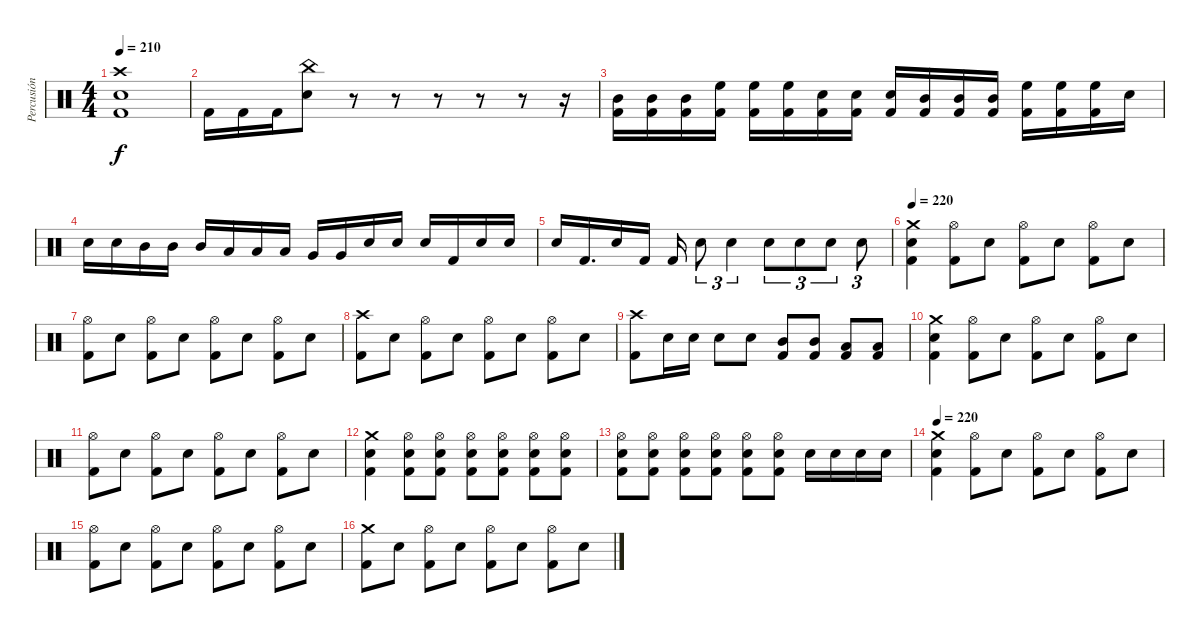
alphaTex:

\track ("Percusión" "Percusión") {instrument percussion}
\staff {score}
\articulation defaults
\ts (4 4)
\tempo 210
\clef neutral
\ks c
("Crash high (hit)" "Electric Snare (hit)" "Kick (hit) 2").1{dy f} |
"Kick (hit) 2".16 "Kick (hit) 2".16 "Kick (hit) 2".16 ("China (hit)" "Electric Snare (hit)").8 r.8 r.8 r.8 r.8 r.8 r.16 |
("Mid Tom (hit)" "Kick (hit) 2").16 ("Mid Tom (hit)" "Kick (hit) 2").16 ("Mid Tom (hit)" "Kick (hit) 2").16 ("High Floor Tom (hit)" "Kick (hit) 2").16 ("High Floor Tom (hit)" "Kick (hit) 2").16 ("High Floor Tom (hit)" "Kick (hit) 2").16 ("Electric Snare (hit)" "Kick (hit) 2").16 ("Electric Snare (hit)" "Kick (hit) 2").16 ("Electric Snare (hit)" "Kick (hit) 2").16 ("Mid Tom (hit)" "Kick (hit) 2").16 ("Mid Tom (hit)" "Kick (hit) 2").16 ("Mid Tom (hit)" "Kick (hit) 2").16 ("High Floor Tom (hit)" "Kick (hit) 2").16 ("High Floor Tom (hit)" "Kick (hit) 2").16 ("High Floor Tom (hit)" "Kick (hit) 2").16 "Electric Snare (hit)".16 |
"Electric Snare (hit)".16 "Electric Snare (hit)".16 "Mid Tom (hit)".16 "Mid Tom (hit)".16 "Mid Tom (hit)".16 "Low Tom (hit)".16 "Low Tom (hit)".16 "Low Tom (hit)".16 "Very Low Tom (hit)".16 "Very Low Tom (hit)".16 "Electric Snare (hit)".16 "Electric Snare (hit)".16 "Electric Snare (hit)".16 "Kick (hit) 2".16 "Electric Snare (hit)".16 "Electric Snare (hit)".16 |
"Electric Snare (hit)".16 "Kick (hit) 2".16{d} "Electric Snare (hit)".16 "Kick (hit) 2".16 "Kick (hit) 2".16 "Electric Snare (hit)".8{tu (3 2)} "Electric Snare (hit)".4{tu (3 2)} "Electric Snare (hit)".8{tu (3 2)} "Electric Snare (hit)".8{tu (3 2)} "Electric Snare (hit)".8{tu (3 2)} "Electric Snare (hit)".8{tu (3 2)} |
\tempo 220
("Crash medium (hit)" "Electric Snare (hit)" "Kick (hit) 2").4 ("Hi-Hat (open)" "Kick (hit) 2").8 "Electric Snare (hit)".8 ("Hi-Hat (open)" "Kick (hit) 2").8 "Electric Snare (hit)".8 ("Hi-Hat (open)" "Kick (hit) 2").8 "Electric Snare (hit)".8 |
("Hi-Hat (open)" "Kick (hit) 2").8 "Electric Snare (hit)".8 ("Hi-Hat (open)" "Kick (hit) 2").8 "Electric Snare (hit)".8 ("Hi-Hat (open)" "Kick (hit) 2").8 "Electric Snare (hit)".8 ("Hi-Hat (open)" "Kick (hit) 2").8 "Electric Snare (hit)".8 |
("Crash high (hit)" "Kick (hit) 2").8 "Electric Snare (hit)".8 ("Hi-Hat (open)" "Kick (hit) 2").8 "Electric Snare (hit)".8 ("Hi-Hat (open)" "Kick (hit) 2").8 "Electric Snare (hit)".8 ("Hi-Hat (open)" "Kick (hit) 2").8 "Electric Snare (hit)".8 |
("Crash high (hit)" "Kick (hit) 2").8 "Electric Snare (hit)".16 "Electric Snare (hit)".16 "Electric Snare (hit)".8 "Electric Snare (hit)".8 ("Mid Tom (hit)" "Kick (hit) 2").8 ("Mid Tom (hit)" "Kick (hit) 2").8 ("Low Tom (hit)" "Kick (hit) 2").8 ("Low Tom (hit)" "Kick (hit) 2").8 |
("Crash medium (hit)" "Electric Snare (hit)" "Kick (hit) 2").4 ("Hi-Hat (open)" "Kick (hit) 2").8 "Electric Snare (hit)".8 ("Hi-Hat (open)" "Kick (hit) 2").8 "Electric Snare (hit)".8 ("Hi-Hat (open)" "Kick (hit) 2").8 "Electric Snare (hit)".8 |
("Hi-Hat (open)" "Kick (hit) 2").8 "Electric Snare (hit)".8 ("Hi-Hat (open)" "Kick (hit) 2").8 "Electric Snare (hit)".8 ("Hi-Hat (open)" "Kick (hit) 2").8 "Electric Snare (hit)".8 ("Hi-Hat (open)" "Kick (hit) 2").8 "Electric Snare (hit)".8 |
("Crash medium (hit)" "Electric Snare (hit)" "Kick (hit) 2").4 ("Hi-Hat (open)" "Electric Snare (hit)" "Kick (hit) 2").8 ("Hi-Hat (open)" "Electric Snare (hit)" "Kick (hit) 2").8 ("Hi-Hat (open)" "Electric Snare (hit)" "Kick (hit) 2").8 ("Hi-Hat (open)" "Electric Snare (hit)" "Kick (hit) 2").8 ("Hi-Hat (open)" "Electric Snare (hit)" "Kick (hit) 2").8 ("Hi-Hat (open)" "Electric Snare (hit)" "Kick (hit) 2").8 |
("Hi-Hat (open)" "Electric Snare (hit)" "Kick (hit) 2").8 ("Hi-Hat (open)" "Electric Snare (hit)" "Kick (hit) 2").8 ("Hi-Hat (open)" "Electric Snare (hit)" "Kick (hit) 2").8 ("Hi-Hat (open)" "Electric Snare (hit)" "Kick (hit) 2").8 ("Hi-Hat (open)" "Electric Snare (hit)" "Kick (hit) 2").8 ("Hi-Hat (open)" "Electric Snare (hit)" "Kick (hit) 2").8 "Electric Snare (hit)".16 "Electric Snare (hit)".16 "Electric Snare (hit)".16 "Electric Snare (hit)".16 |
\tempo 220
("Crash medium (hit)" "Electric Snare (hit)" "Kick (hit) 2").4 ("Hi-Hat (open)" "Kick (hit) 2").8 "Electric Snare (hit)".8 ("Hi-Hat (open)" "Kick (hit) 2").8 "Electric Snare (hit)".8 ("Hi-Hat (open)" "Kick (hit) 2").8 "Electric Snare (hit)".8 |
("Hi-Hat (open)" "Kick (hit) 2").8 "Electric Snare (hit)".8 ("Hi-Hat (open)" "Kick (hit) 2").8 "Electric Snare (hit)".8 ("Hi-Hat (open)" "Kick (hit) 2").8 "Electric Snare (hit)".8 ("Hi-Hat (open)" "Kick (hit) 2").8 "Electric Snare (hit)".8 |
("Crash medium (hit)" "Kick (hit) 2").8 "Electric Snare (hit)".8 ("Hi-Hat (open)" "Kick (hit) 2").8 "Electric Snare (hit)".8 ("Hi-Hat (open)" "Kick (hit) 2").8 "Electric Snare (hit)".8 ("Hi-Hat (open)" "Kick (hit) 2").8 "Electric Snare (hit)".8
